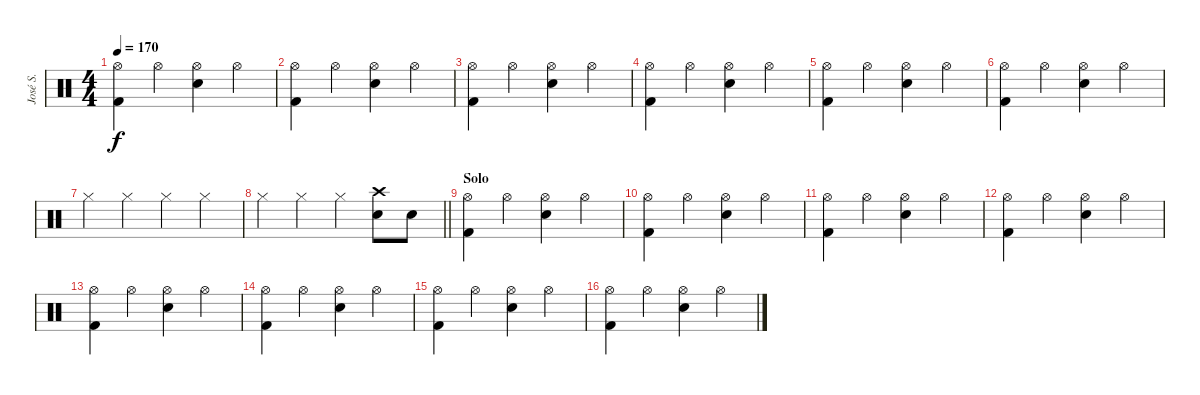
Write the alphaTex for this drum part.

\track ("José S." "José S.") {instrument percussion}
\staff {score}
\articulation defaults
\ts (4 4)
\tempo 170
\clef neutral
\ks c
("Hi-Hat (open)" "Kick (hit) 2").4{dy f} "Hi-Hat (open)".4 ("Hi-Hat (open)" "Electric Snare (hit)").4 "Hi-Hat (open)".4 |
("Hi-Hat (open)" "Kick (hit) 2").4 "Hi-Hat (open)".4 ("Hi-Hat (open)" "Electric Snare (hit)").4 "Hi-Hat (open)".4 |
("Hi-Hat (open)" "Kick (hit) 2").4 "Hi-Hat (open)".4 ("Hi-Hat (open)" "Electric Snare (hit)").4 "Hi-Hat (open)".4 |
("Hi-Hat (open)" "Kick (hit) 2").4 "Hi-Hat (open)".4 ("Hi-Hat (open)" "Electric Snare (hit)").4 "Hi-Hat (open)".4 |
("Hi-Hat (open)" "Kick (hit) 2").4 "Hi-Hat (open)".4 ("Hi-Hat (open)" "Electric Snare (hit)").4 "Hi-Hat (open)".4 |
("Hi-Hat (open)" "Kick (hit) 2").4 "Hi-Hat (open)".4 ("Hi-Hat (open)" "Electric Snare (hit)").4 "Hi-Hat (open)".4 |
"Hi-Hat (closed)".4 "Hi-Hat (closed)".4 "Hi-Hat (closed)".4 "Hi-Hat (closed)".4 |
\barLineRight lightlight "Hi-Hat (closed)".4 "Hi-Hat (closed)".4 "Hi-Hat (closed)".4
("Crash high (hit)" "Electric Snare (hit)").8 "Electric Snare (hit)".8 |
\section ("" "Solo")
("Hi-Hat (open)" "Kick (hit) 2").4 "Hi-Hat (open)".4 ("Hi-Hat (open)" "Electric Snare (hit)").4 "Hi-Hat (open)".4 |
("Hi-Hat (open)" "Kick (hit) 2").4 "Hi-Hat (open)".4 ("Hi-Hat (open)" "Electric Snare (hit)").4 "Hi-Hat (open)".4 |
("Hi-Hat (open)" "Kick (hit) 2").4 "Hi-Hat (open)".4 ("Hi-Hat (open)" "Electric Snare (hit)").4 "Hi-Hat (open)".4 |
("Hi-Hat (open)" "Kick (hit) 2").4 "Hi-Hat (open)".4 ("Hi-Hat (open)" "Electric Snare (hit)").4 "Hi-Hat (open)".4 |
("Hi-Hat (open)" "Kick (hit) 2").4 "Hi-Hat (open)".4 ("Hi-Hat (open)" "Electric Snare (hit)").4 "Hi-Hat (open)".4 |
("Hi-Hat (open)" "Kick (hit) 2").4 "Hi-Hat (open)".4 ("Hi-Hat (open)" "Electric Snare (hit)").4 "Hi-Hat (open)".4 |
("Hi-Hat (open)" "Kick (hit) 2").4 "Hi-Hat (open)".4 ("Hi-Hat (open)" "Electric Snare (hit)").4 "Hi-Hat (open)".4 |
("Hi-Hat (open)" "Kick (hit) 2").4 "Hi-Hat (open)".4 ("Hi-Hat (open)" "Electric Snare (hit)").4 "Hi-Hat (open)".4
